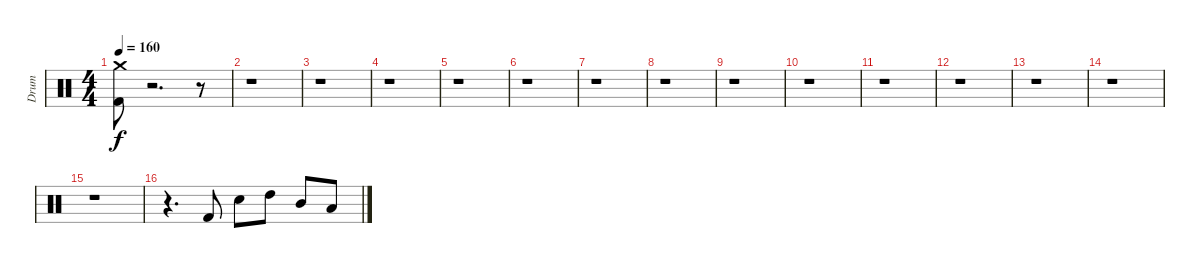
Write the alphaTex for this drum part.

\track ("Drum" "Drum") {instrument percussion}
\staff {score}
\articulation defaults
\ts (4 4)
\tempo 160
\clef neutral
\ks c
("Crash medium (hit)" "Kick (hit) 2").8{dy f} r.2{d} r.8 |
r.1 |
r.1 |
r.1 |
r.1 |
r.1 |
r.1 |
r.1 |
r.1 |
r.1 |
r.1 |
r.1 |
r.1 |
r.1 |
r.1 |
r.4{d} "Kick (hit) 2".8 "Electric Snare (hit)".8 "High Tom (hit)".8 "Mid Tom (hit)".8 "Low Tom (hit)".8
